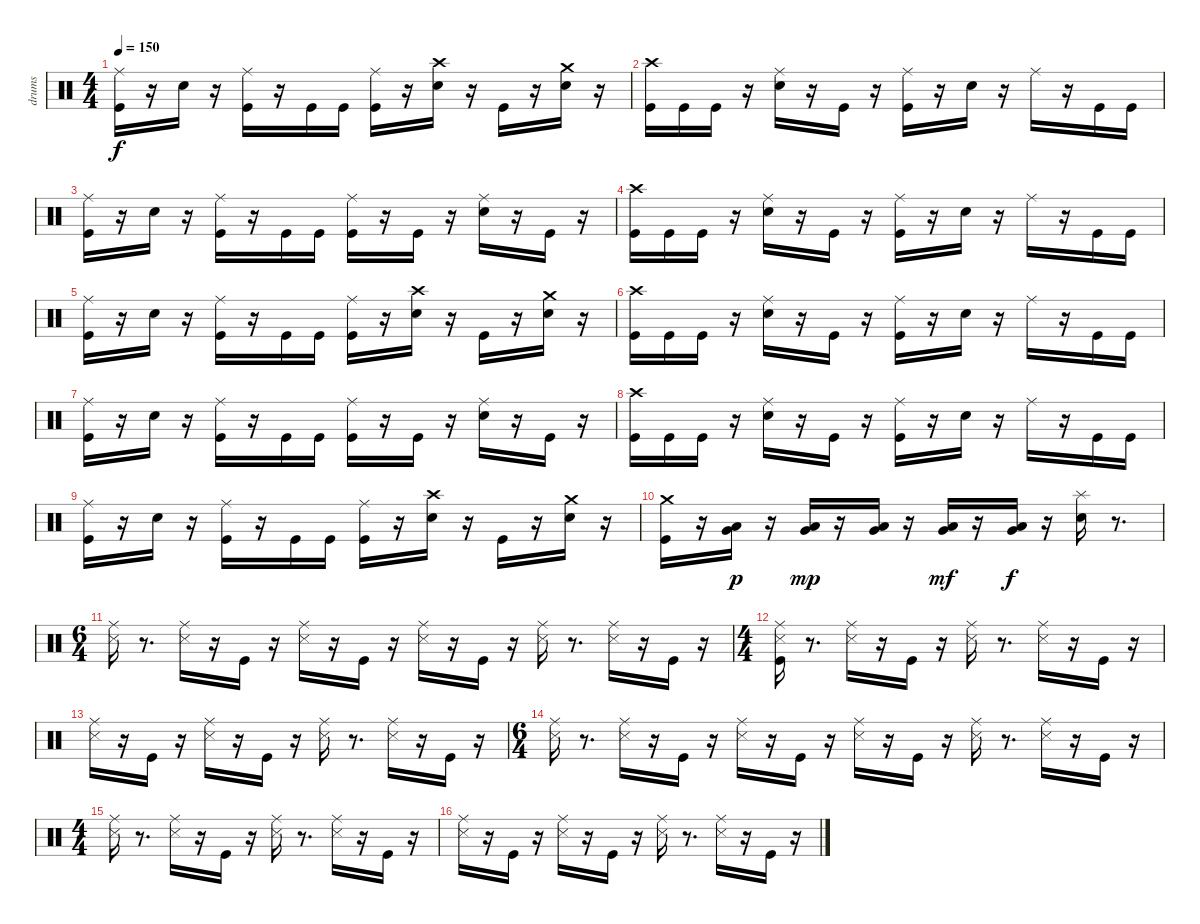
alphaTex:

\track ("drums" "drums") {instrument percussion}
\staff {score}
\articulation defaults
\ts (4 4)
\tempo 150
\clef neutral
\ks c
("Ride (middle)" "Kick (hit)").16{dy f} r.16 "Electric Snare (hit)".16 r.16 ("Ride (middle)" "Kick (hit)").16 r.16 "Kick (hit)".16 "Kick (hit)".16 ("Ride (middle)" "Kick (hit)").16 r.16 ("Crash high (hit)" "Electric Snare (hit)").16 r.16 "Kick (hit)".16 r.16 ("Crash medium (hit)" "Electric Snare (hit)").16 r.16 |
("Crash high (hit)" "Kick (hit)").16 "Kick (hit)".16 "Kick (hit)".16 r.16 ("Ride (middle)" "Electric Snare (hit)").16 r.16 "Kick (hit)".16 r.16 ("Ride (middle)" "Kick (hit)").16 r.16 "Electric Snare (hit)".16 r.16 "Ride (middle)".16 r.16 "Kick (hit)".16 "Kick (hit)".16 |
("Ride (middle)" "Kick (hit)").16 r.16 "Electric Snare (hit)".16 r.16 ("Ride (middle)" "Kick (hit)").16 r.16 "Kick (hit)".16 "Kick (hit)".16 ("Ride (middle)" "Kick (hit)").16 r.16 "Kick (hit)".16 r.16 ("Ride (middle)" "Electric Snare (hit)").16 r.16 "Kick (hit)".16 r.16 |
("Crash high (hit)" "Kick (hit)").16 "Kick (hit)".16 "Kick (hit)".16 r.16 ("Ride (middle)" "Electric Snare (hit)").16 r.16 "Kick (hit)".16 r.16 ("Ride (middle)" "Kick (hit)").16 r.16 "Electric Snare (hit)".16 r.16 "Ride (middle)".16 r.16 "Kick (hit)".16 "Kick (hit)".16 |
("Ride (middle)" "Kick (hit)").16 r.16 "Electric Snare (hit)".16 r.16 ("Ride (middle)" "Kick (hit)").16 r.16 "Kick (hit)".16 "Kick (hit)".16 ("Ride (middle)" "Kick (hit)").16 r.16 ("Crash high (hit)" "Electric Snare (hit)").16 r.16 "Kick (hit)".16 r.16 ("Crash medium (hit)" "Electric Snare (hit)").16 r.16 |
("Crash high (hit)" "Kick (hit)").16 "Kick (hit)".16 "Kick (hit)".16 r.16 ("Ride (middle)" "Electric Snare (hit)").16 r.16 "Kick (hit)".16 r.16 ("Ride (middle)" "Kick (hit)").16 r.16 "Electric Snare (hit)".16 r.16 "Ride (middle)".16 r.16 "Kick (hit)".16 "Kick (hit)".16 |
("Ride (middle)" "Kick (hit)").16 r.16 "Electric Snare (hit)".16 r.16 ("Ride (middle)" "Kick (hit)").16 r.16 "Kick (hit)".16 "Kick (hit)".16 ("Ride (middle)" "Kick (hit)").16 r.16 "Kick (hit)".16 r.16 ("Ride (middle)" "Electric Snare (hit)").16 r.16 "Kick (hit)".16 r.16 |
("Crash high (hit)" "Kick (hit)").16 "Kick (hit)".16 "Kick (hit)".16 r.16 ("Ride (middle)" "Electric Snare (hit)").16 r.16 "Kick (hit)".16 r.16 ("Ride (middle)" "Kick (hit)").16 r.16 "Electric Snare (hit)".16 r.16 "Ride (middle)".16 r.16 "Kick (hit)".16 "Kick (hit)".16 |
("Ride (middle)" "Kick (hit)").16 r.16 "Electric Snare (hit)".16 r.16 ("Ride (middle)" "Kick (hit)").16 r.16 "Kick (hit)".16 "Kick (hit)".16 ("Ride (middle)" "Kick (hit)").16 r.16 ("Crash high (hit)" "Electric Snare (hit)").16 r.16 "Kick (hit)".16 r.16 ("Crash medium (hit)" "Electric Snare (hit)").16 r.16 |
("Crash medium (hit)" "Kick (hit)").16 r.16 ("Low Floor Tom (hit)" "Very Low Tom (hit)").16{dy p} r.16 ("Low Floor Tom (hit)" "Very Low Tom (hit)").16{dy mp} r.16 ("Low Floor Tom (hit)" "Very Low Tom (hit)").16 r.16 ("Low Floor Tom (hit)" "Very Low Tom (hit)").16{dy mf} r.16 ("Very Low Tom (hit)" "Low Floor Tom (hit)").16{dy f} r.16 ("Splash (hit)" "Electric Snare (hit)").16 r.8{d} |
\ts (6 4)
("Snare (side stick) 3" "Ride (middle)").16 r.8{d} ("Ride (middle)" "Snare (side stick) 3").16 r.16 "Kick (hit)".16 r.16 ("Ride (middle)" "Snare (side stick) 3").16 r.16 "Kick (hit)".16 r.16 ("Ride (middle)" "Snare (side stick) 3").16 r.16 "Kick (hit)".16 r.16 ("Ride (middle)" "Snare (side stick) 3").16 r.8{d} ("Ride (middle)" "Snare (side stick) 3").16 r.16 "Kick (hit)".16 r.16 |
\ts (4 4)
("Kick (hit)" "Ride (middle)" "Snare (side stick) 3").16 r.8{d} ("Ride (middle)" "Snare (side stick) 3").16 r.16 "Kick (hit)".16 r.16 ("Ride (middle)" "Snare (side stick) 3").16 r.8{d} ("Ride (middle)" "Snare (side stick) 3").16 r.16 "Kick (hit)".16 r.16 |
("Ride (middle)" "Snare (side stick) 3").16 r.16 "Kick (hit)".16 r.16 ("Snare (side stick) 3" "Ride (middle)").16 r.16 "Kick (hit)".16 r.16 ("Snare (side stick) 3" "Ride (middle)").16 r.8{d} ("Ride (middle)" "Snare (side stick) 3").16 r.16 "Kick (hit)".16 r.16 |
\ts (6 4)
("Snare (side stick) 3" "Ride (middle)").16 r.8{d} ("Ride (middle)" "Snare (side stick) 3").16 r.16 "Kick (hit)".16 r.16 ("Ride (middle)" "Snare (side stick) 3").16 r.16 "Kick (hit)".16 r.16 ("Ride (middle)" "Snare (side stick) 3").16 r.16 "Kick (hit)".16 r.16 ("Ride (middle)" "Snare (side stick) 3").16 r.8{d} ("Ride (middle)" "Snare (side stick) 3").16 r.16 "Kick (hit)".16 r.16 |
\ts (4 4)
("Ride (middle)" "Snare (side stick) 3").16 r.8{d} ("Ride (middle)" "Snare (side stick) 3").16 r.16 "Kick (hit)".16 r.16 ("Ride (middle)" "Snare (side stick) 3").16 r.8{d} ("Ride (middle)" "Snare (side stick) 3").16 r.16 "Kick (hit)".16 r.16 |
("Ride (middle)" "Snare (side stick) 3").16 r.16 "Kick (hit)".16 r.16 ("Snare (side stick) 3" "Ride (middle)").16 r.16 "Kick (hit)".16 r.16 ("Snare (side stick) 3" "Ride (middle)").16 r.8{d} ("Ride (middle)" "Snare (side stick) 3").16 r.16 "Kick (hit)".16 r.16
